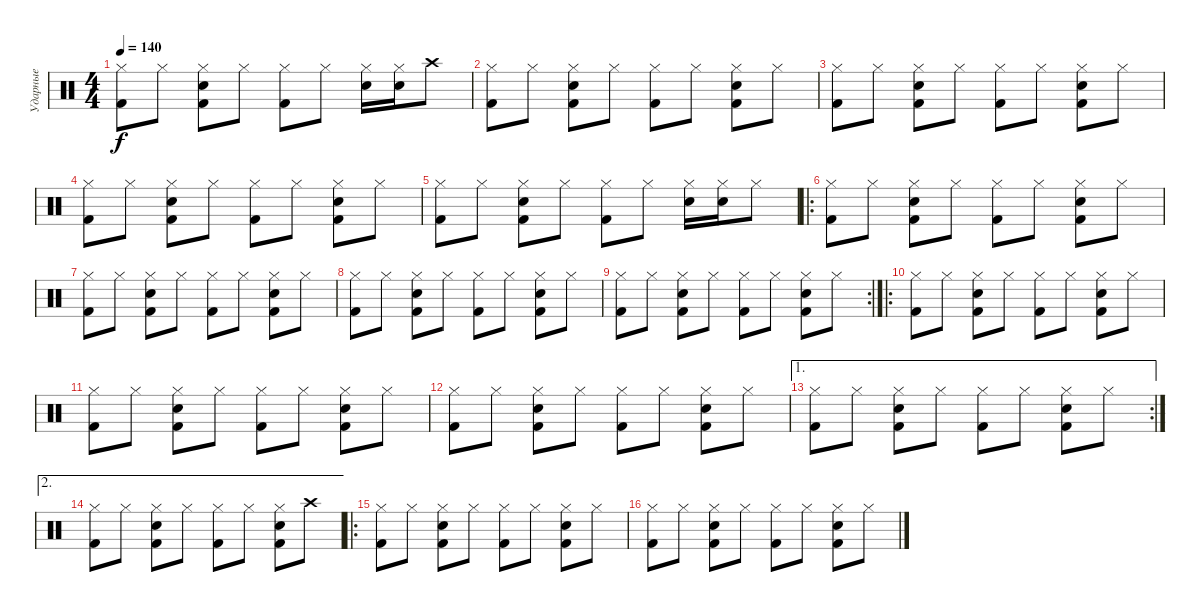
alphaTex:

\track ("Ударные" "Ударные") {instrument percussion}
\staff {score}
\articulation defaults
\ts (4 4)
\tempo 140
\clef neutral
\ks c
("Hi-Hat (closed)" "Kick (hit) 2").8{dy f} "Hi-Hat (closed)".8 ("Hi-Hat (closed)" "Kick (hit) 2" "Snare (hit) 2").8 "Hi-Hat (closed)".8 ("Hi-Hat (closed)" "Kick (hit) 2").8 "Hi-Hat (closed)".8 ("Hi-Hat (closed)" "Snare (hit) 2").16 ("Hi-Hat (closed)" "Snare (hit) 2").16 "Crash high (hit)".8 |
("Hi-Hat (closed)" "Kick (hit) 2").8 "Hi-Hat (closed)".8 ("Hi-Hat (closed)" "Kick (hit) 2" "Snare (hit) 2").8 "Hi-Hat (closed)".8 ("Hi-Hat (closed)" "Kick (hit) 2").8 "Hi-Hat (closed)".8 ("Hi-Hat (closed)" "Kick (hit) 2" "Snare (hit) 2").8 "Hi-Hat (closed)".8 |
("Hi-Hat (closed)" "Kick (hit) 2").8 "Hi-Hat (closed)".8 ("Hi-Hat (closed)" "Kick (hit) 2" "Snare (hit) 2").8 "Hi-Hat (closed)".8 ("Hi-Hat (closed)" "Kick (hit) 2").8 "Hi-Hat (closed)".8 ("Hi-Hat (closed)" "Kick (hit) 2" "Snare (hit) 2").8 "Hi-Hat (closed)".8 |
("Hi-Hat (closed)" "Kick (hit) 2").8 "Hi-Hat (closed)".8 ("Hi-Hat (closed)" "Kick (hit) 2" "Snare (hit) 2").8 "Hi-Hat (closed)".8 ("Hi-Hat (closed)" "Kick (hit) 2").8 "Hi-Hat (closed)".8 ("Hi-Hat (closed)" "Kick (hit) 2" "Snare (hit) 2").8 "Hi-Hat (closed)".8 |
("Hi-Hat (closed)" "Kick (hit) 2").8 "Hi-Hat (closed)".8 ("Hi-Hat (closed)" "Kick (hit) 2" "Snare (hit) 2").8 "Hi-Hat (closed)".8 ("Hi-Hat (closed)" "Kick (hit) 2").8 "Hi-Hat (closed)".8 ("Hi-Hat (closed)" "Snare (hit) 2").16 ("Hi-Hat (closed)" "Snare (hit) 2").16 "Hi-Hat (closed)".8 |
\ro
("Hi-Hat (closed)" "Kick (hit) 2").8 "Hi-Hat (closed)".8 ("Hi-Hat (closed)" "Kick (hit) 2" "Snare (hit) 2").8 "Hi-Hat (closed)".8 ("Hi-Hat (closed)" "Kick (hit) 2").8 "Hi-Hat (closed)".8 ("Hi-Hat (closed)" "Kick (hit) 2" "Snare (hit) 2").8 "Hi-Hat (closed)".8 |
("Hi-Hat (closed)" "Kick (hit) 2").8 "Hi-Hat (closed)".8 ("Hi-Hat (closed)" "Kick (hit) 2" "Snare (hit) 2").8 "Hi-Hat (closed)".8 ("Hi-Hat (closed)" "Kick (hit) 2").8 "Hi-Hat (closed)".8 ("Hi-Hat (closed)" "Kick (hit) 2" "Snare (hit) 2").8 "Hi-Hat (closed)".8 |
("Hi-Hat (closed)" "Kick (hit) 2").8 "Hi-Hat (closed)".8 ("Hi-Hat (closed)" "Kick (hit) 2" "Snare (hit) 2").8 "Hi-Hat (closed)".8 ("Hi-Hat (closed)" "Kick (hit) 2").8 "Hi-Hat (closed)".8 ("Hi-Hat (closed)" "Kick (hit) 2" "Snare (hit) 2").8 "Hi-Hat (closed)".8 |
\rc 2
("Hi-Hat (closed)" "Kick (hit) 2").8 "Hi-Hat (closed)".8 ("Hi-Hat (closed)" "Kick (hit) 2" "Snare (hit) 2").8 "Hi-Hat (closed)".8 ("Hi-Hat (closed)" "Kick (hit) 2").8 "Hi-Hat (closed)".8 ("Hi-Hat (closed)" "Kick (hit) 2" "Snare (hit) 2").8 "Hi-Hat (closed)".8 |
\ro
("Hi-Hat (closed)" "Kick (hit) 2").8 "Hi-Hat (closed)".8 ("Hi-Hat (closed)" "Kick (hit) 2" "Snare (hit) 2").8 "Hi-Hat (closed)".8 ("Hi-Hat (closed)" "Kick (hit) 2").8 "Hi-Hat (closed)".8 ("Hi-Hat (closed)" "Kick (hit) 2" "Snare (hit) 2").8 "Hi-Hat (closed)".8 |
("Hi-Hat (closed)" "Kick (hit) 2").8 "Hi-Hat (closed)".8 ("Hi-Hat (closed)" "Kick (hit) 2" "Snare (hit) 2").8 "Hi-Hat (closed)".8 ("Hi-Hat (closed)" "Kick (hit) 2").8 "Hi-Hat (closed)".8 ("Hi-Hat (closed)" "Kick (hit) 2" "Snare (hit) 2").8 "Hi-Hat (closed)".8 |
("Hi-Hat (closed)" "Kick (hit) 2").8 "Hi-Hat (closed)".8 ("Hi-Hat (closed)" "Kick (hit) 2" "Snare (hit) 2").8 "Hi-Hat (closed)".8 ("Hi-Hat (closed)" "Kick (hit) 2").8 "Hi-Hat (closed)".8 ("Hi-Hat (closed)" "Kick (hit) 2" "Snare (hit) 2").8 "Hi-Hat (closed)".8 |
\ae 1
\rc 2
("Hi-Hat (closed)" "Kick (hit) 2").8 "Hi-Hat (closed)".8 ("Hi-Hat (closed)" "Kick (hit) 2" "Snare (hit) 2").8 "Hi-Hat (closed)".8 ("Hi-Hat (closed)" "Kick (hit) 2").8 "Hi-Hat (closed)".8 ("Hi-Hat (closed)" "Kick (hit) 2" "Snare (hit) 2").8 "Hi-Hat (closed)".8 |
\ae 2
("Hi-Hat (closed)" "Kick (hit) 2").8 "Hi-Hat (closed)".8 ("Hi-Hat (closed)" "Kick (hit) 2" "Snare (hit) 2").8 "Hi-Hat (closed)".8 ("Hi-Hat (closed)" "Kick (hit) 2").8 "Hi-Hat (closed)".8 ("Hi-Hat (closed)" "Kick (hit) 2" "Snare (hit) 2").8 "Crash high (hit)".8 |
\ro
("Hi-Hat (closed)" "Kick (hit) 2").8 "Hi-Hat (closed)".8 ("Hi-Hat (closed)" "Kick (hit) 2" "Snare (hit) 2").8 "Hi-Hat (closed)".8 ("Hi-Hat (closed)" "Kick (hit) 2").8 "Hi-Hat (closed)".8 ("Hi-Hat (closed)" "Kick (hit) 2" "Snare (hit) 2").8 "Hi-Hat (closed)".8 |
("Hi-Hat (closed)" "Kick (hit) 2").8 "Hi-Hat (closed)".8 ("Hi-Hat (closed)" "Kick (hit) 2" "Snare (hit) 2").8 "Hi-Hat (closed)".8 ("Hi-Hat (closed)" "Kick (hit) 2").8 "Hi-Hat (closed)".8 ("Hi-Hat (closed)" "Kick (hit) 2" "Snare (hit) 2").8 "Hi-Hat (closed)".8
